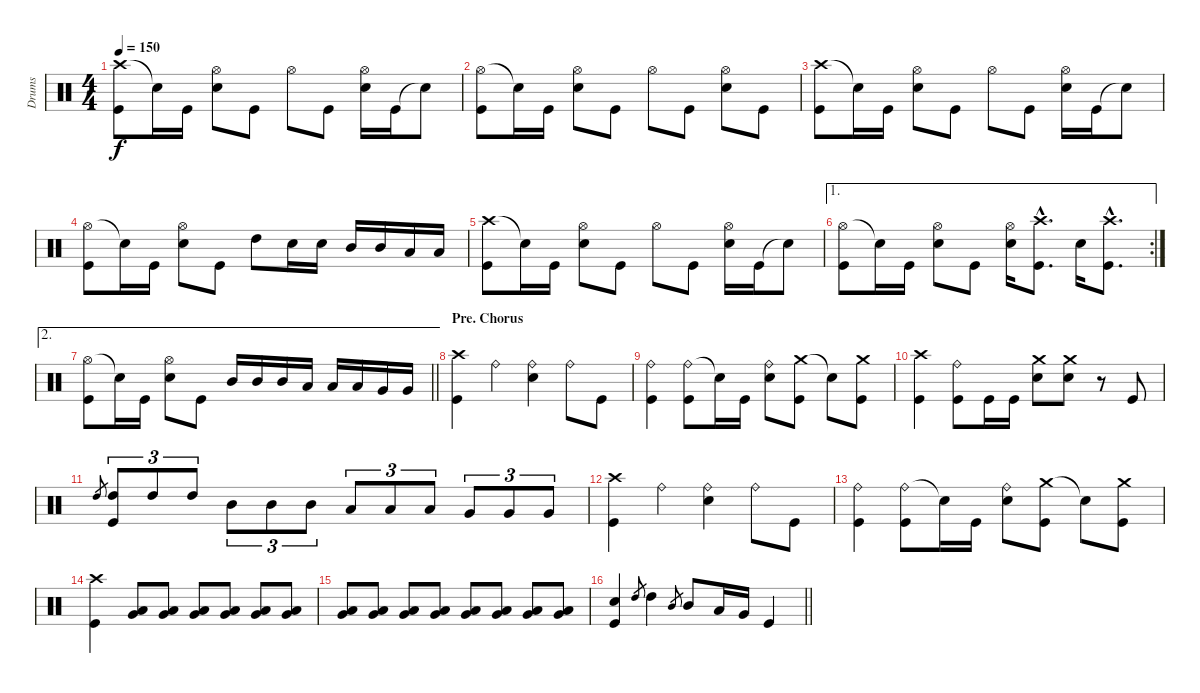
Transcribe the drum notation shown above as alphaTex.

\track ("Drums" "Drums") {instrument percussion}
\staff {score}
\articulation defaults
\ts (4 4)
\tempo 150
\clef neutral
\ks c
("Crash high (hit)" "Kick (hit)").8{dy f} "Snare (hit)"{t}.16 "Kick (hit)".16 ("Hi-Hat (open)" "Snare (hit) 2").8 "Kick (hit)".8 "Hi-Hat (open)".8 "Kick (hit)".8 ("Hi-Hat (open)" "Electric Snare (hit)").16 "Kick (hit)".16 "Snare (hit)"{t}.8 |
("Hi-Hat (open)" "Kick (hit)").8 "Snare (hit)"{t}.16 "Kick (hit)".16 ("Hi-Hat (open)" "Snare (hit) 2").8 "Kick (hit)".8 "Hi-Hat (open)".8 "Kick (hit)".8 ("Hi-Hat (open)" "Electric Snare (hit)").8 "Kick (hit)".8 |
("Crash high (hit)" "Kick (hit)").8 "Snare (hit)"{t}.16 "Kick (hit)".16 ("Hi-Hat (open)" "Snare (hit) 2").8 "Kick (hit)".8 "Hi-Hat (open)".8 "Kick (hit)".8 ("Hi-Hat (open)" "Electric Snare (hit)").16 "Kick (hit)".16 "Snare (hit)"{t}.8 |
("Hi-Hat (open)" "Kick (hit)").8 "Snare (hit)"{t}.16 "Kick (hit)".16 ("Hi-Hat (open)" "Snare (hit) 2").8 "Kick (hit)".8 "High Tom (hit)".8 "Snare (hit) 2".16 "Snare (hit) 2".16 "Mid Tom (hit)".16 "Mid Tom (hit)".16 "Low Tom (hit)".16 "Low Tom (hit)".16 |
("Crash high (hit)" "Kick (hit)").8 "Snare (hit)"{t}.16 "Kick (hit)".16 ("Hi-Hat (open)" "Snare (hit) 2").8 "Kick (hit)".8 "Hi-Hat (open)".8 "Kick (hit)".8 ("Hi-Hat (open)" "Electric Snare (hit)").16 "Kick (hit)".16 "Snare (hit)"{t}.8 |
\ae 1
\rc 2
("Hi-Hat (open)" "Kick (hit)").8 "Snare (hit)"{t}.16 "Kick (hit)".16 ("Hi-Hat (open)" "Snare (hit) 2").8 "Kick (hit)".8 ("Hi-Hat (open)" "Electric Snare (hit)").16 ("Crash high (hit)"{hac} "Kick (hit)"{hac}).8{d} "Electric Snare (hit)".16 ("Crash high (hit)"{hac} "Kick (hit)"{hac}).8{d} |
\ae 2
\barLineRight lightlight
("Hi-Hat (open)" "Kick (hit)").8 "Snare (hit)"{t}.16 "Kick (hit)".16 ("Hi-Hat (open)" "Snare (hit) 2").8 "Kick (hit)".8 "Mid Tom (hit)".16 "Mid Tom (hit)".16 "Mid Tom (hit)".16 "Low Tom (hit)".16 "Low Tom (hit)".16 "Low Tom (hit)".16 "Very Low Tom (hit)".16 "Very Low Tom (hit)".16 |
\section ("" "Pre. Chorus")
("Crash high (hit)" "Kick (hit)").4 "Ride (bell)".4 ("Ride (bell)" "Electric Snare (hit)").4 "Ride (bell)".8 "Kick (hit)".8 |
("Ride (bell)" "Kick (hit)").4 ("Ride (bell)" "Kick (hit)").8 "Snare (hit)"{t}.16 "Kick (hit)".16 ("Ride (bell)" "Snare (hit) 2").8 ("Crash medium (hit)" "Kick (hit)").8 "Snare (hit)"{t}.8 ("Crash medium (hit)" "Kick (hit)").8 |
("Crash high (hit)" "Kick (hit)").4 ("Ride (bell)" "Kick (hit)").8 "Kick (hit)".16 "Kick (hit)".16 ("Crash medium (hit)" "Snare (hit) 2").8 ("Crash medium (hit)" "Snare (hit) 2").8 r.8 "Kick (hit)".8 |
"High Tom (hit)".8{gr} ("High Tom (hit)" "Kick (hit)").8{tu (3 2)} "High Tom (hit)".8{tu (3 2)} "High Tom (hit)".8{tu (3 2)} "Mid Tom (hit)".8{tu (3 2)} "Mid Tom (hit)".8{tu (3 2)} "Mid Tom (hit)".8{tu (3 2)} "Low Tom (hit)".8{tu (3 2)} "Low Tom (hit)".8{tu (3 2)} "Low Tom (hit)".8{tu (3 2)} "Very Low Tom (hit)".8{tu (3 2)} "Very Low Tom (hit)".8{tu (3 2)} "Very Low Tom (hit)".8{tu (3 2)} |
("Crash high (hit)" "Kick (hit)").4 "Ride (bell)".4 ("Ride (bell)" "Electric Snare (hit)").4 "Ride (bell)".8 "Kick (hit)".8 |
("Ride (bell)" "Kick (hit)").4 ("Ride (bell)" "Kick (hit)").8 "Snare (hit)"{t}.16 "Kick (hit)".16 ("Ride (bell)" "Snare (hit) 2").8 ("Crash medium (hit)" "Kick (hit)").8 "Snare (hit)"{t}.8 ("Crash medium (hit)" "Kick (hit)").8 |
("Crash high (hit)" "Kick (hit)").4 ("Very Low Tom (hit)" "Low Tom (hit)").8 ("Very Low Tom (hit)" "Low Tom (hit)").8 ("Very Low Tom (hit)" "Low Tom (hit)").8 ("Very Low Tom (hit)" "Low Tom (hit)").8 ("Very Low Tom (hit)" "Low Tom (hit)").8 ("Very Low Tom (hit)" "Low Tom (hit)").8 |
("Very Low Tom (hit)" "Low Tom (hit)").8 ("Very Low Tom (hit)" "Low Tom (hit)").8 ("Very Low Tom (hit)" "Low Tom (hit)").8 ("Very Low Tom (hit)" "Low Tom (hit)").8 ("Very Low Tom (hit)" "Low Tom (hit)").8 ("Very Low Tom (hit)" "Low Tom (hit)").8 ("Very Low Tom (hit)" "Low Tom (hit)").8 ("Very Low Tom (hit)" "Low Tom (hit)").8 |
\barLineRight lightlight
("Snare (hit) 2" "Kick (hit)").4 "High Tom (hit)".8{gr} "High Tom (hit)".4 "Mid Tom (hit)".8{gr} "Mid Tom (hit)".8 "Low Tom (hit)".16 "Very Low Tom (hit)".16 "Kick (hit)".4
